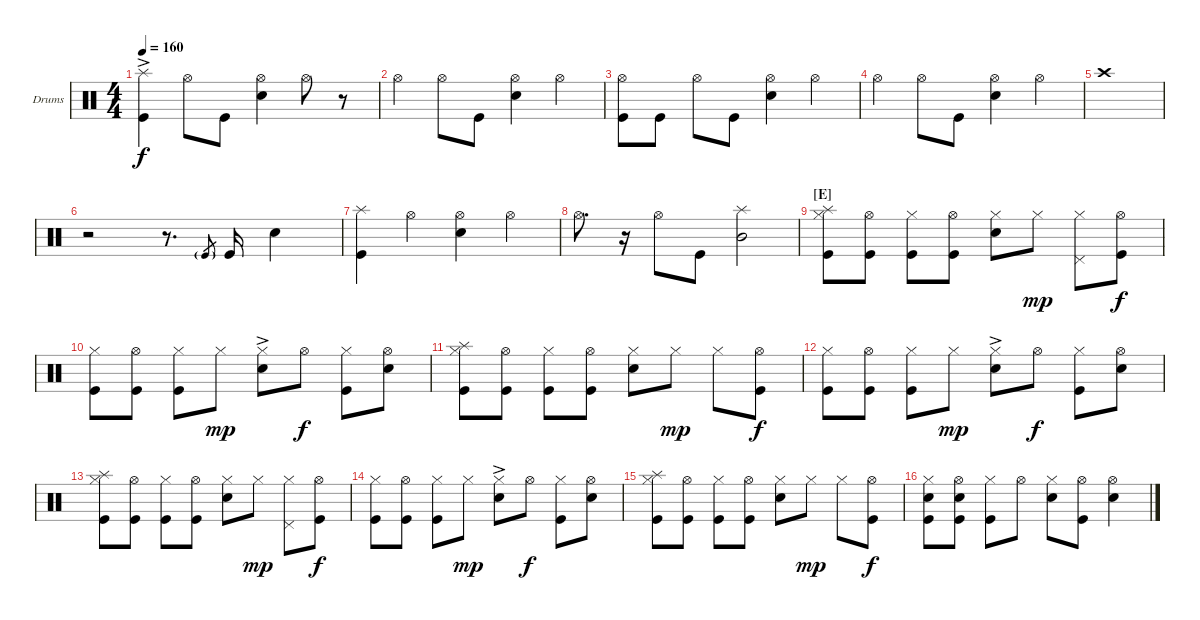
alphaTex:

\defaultSystemsLayout 4
\bracketExtendMode groupsimilarinstruments
\firstSystemTrackNameOrientation horizontal
\otherSystemsTrackNameOrientation horizontal
\track ("Drumkit" "Drums") {instrument percussion}
\staff {score}
\articulation defaults
\ts (4 4)
\tempo 160
\clef neutral
\ks c
("Splash (hit)"{ac} "Kick (hit)").4{dy f} "Hi-Hat (open)".8 "Kick (hit)".8 ("Hi-Hat (open)" "Snare (hit) 2").4 "Hi-Hat (open)".8 r.8 |
"Hi-Hat (open)".4 "Hi-Hat (open)".8 "Kick (hit)".8 ("Hi-Hat (open)" "Snare (hit) 2").4 "Hi-Hat (open)".4 |
("Kick (hit)" "Hi-Hat (open)").8 "Kick (hit)".8 "Hi-Hat (open)".8 "Kick (hit)".8 ("Hi-Hat (open)" "Snare (hit) 2").4 "Hi-Hat (open)".4 |
"Hi-Hat (open)".4 "Hi-Hat (open)".8 "Kick (hit)".8 ("Hi-Hat (open)" "Snare (hit) 2").4 "Hi-Hat (open)".4 |
"Crash high (hit)".1 |
r.2 r.8{d} "Kick (hit)"{g}.8{gr} "Kick (hit)".16 "Snare (hit) 2".4 |
("Kick (hit)" "Splash (hit)").4 "Hi-Hat (open)".4 ("Hi-Hat (open)" "Snare (hit) 2").4 "Hi-Hat (open)".4 |
"Hi-Hat (open)".8{d} r.16 "Hi-Hat (open)".8 "Kick (hit)".8 ("Mid Tom (hit)" "Splash (hit)").2 |
\section ("E" "")
("Splash (hit)" "Kick (hit)" "Hi-Hat (closed)").8 ("Kick (hit)" "Hi-Hat (open)").8 ("Kick (hit)" "Hi-Hat (closed)").8 ("Kick (hit)" "Hi-Hat (open)").8 ("Snare (hit) 2" "Hi-Hat (closed)").8 "Hi-Hat (closed)".8{dy mp} ("Pedal Hi-Hat (hit)" "Hi-Hat (closed)").8 ("Kick (hit)" "Hi-Hat (open)").8{dy f} |
("Kick (hit)" "Hi-Hat (closed)").8 ("Kick (hit)" "Hi-Hat (open)").8 ("Kick (hit)" "Hi-Hat (closed)").8 "Hi-Hat (closed)".8{dy mp} ("Snare (hit) 2"{ac} "Hi-Hat (closed)").8 "Hi-Hat (open)".8{dy f} ("Hi-Hat (closed)" "Kick (hit)").8 ("Snare (hit) 2" "Hi-Hat (open)").8 |
("Splash (hit)" "Kick (hit)" "Hi-Hat (closed)").8 ("Kick (hit)" "Hi-Hat (open)").8 ("Hi-Hat (closed)" "Kick (hit)").8 ("Kick (hit)" "Hi-Hat (open)").8 ("Hi-Hat (closed)" "Snare (hit) 2").8 "Hi-Hat (closed)".8{dy mp} "Hi-Hat (closed)".8 ("Kick (hit)" "Hi-Hat (open)").8{dy f} |
("Hi-Hat (closed)" "Kick (hit)").8 ("Kick (hit)" "Hi-Hat (open)").8 ("Hi-Hat (closed)" "Kick (hit)").8 "Hi-Hat (closed)".8{dy mp} ("Snare (hit) 2"{ac} "Hi-Hat (closed)").8 "Hi-Hat (open)".8{dy f} ("Hi-Hat (closed)" "Kick (hit)").8 ("Snare (hit) 2" "Hi-Hat (open)").8 |
("Splash (hit)" "Kick (hit)" "Hi-Hat (closed)").8 ("Kick (hit)" "Hi-Hat (open)").8 ("Kick (hit)" "Hi-Hat (closed)").8 ("Kick (hit)" "Hi-Hat (open)").8 ("Snare (hit) 2" "Hi-Hat (closed)").8 "Hi-Hat (closed)".8{dy mp} ("Pedal Hi-Hat (hit)" "Hi-Hat (closed)").8 ("Kick (hit)" "Hi-Hat (open)").8{dy f} |
("Kick (hit)" "Hi-Hat (closed)").8 ("Kick (hit)" "Hi-Hat (open)").8 ("Kick (hit)" "Hi-Hat (closed)").8 "Hi-Hat (closed)".8{dy mp} ("Snare (hit) 2"{ac} "Hi-Hat (closed)").8 "Hi-Hat (open)".8{dy f} ("Hi-Hat (closed)" "Kick (hit)").8 ("Snare (hit) 2" "Hi-Hat (open)").8 |
("Splash (hit)" "Kick (hit)" "Hi-Hat (closed)").8 ("Kick (hit)" "Hi-Hat (open)").8 ("Hi-Hat (closed)" "Kick (hit)").8 ("Kick (hit)" "Hi-Hat (open)").8 ("Hi-Hat (closed)" "Snare (hit) 2").8 "Hi-Hat (closed)".8{dy mp} "Hi-Hat (closed)".8 ("Kick (hit)" "Hi-Hat (open)").8{dy f} |
("Hi-Hat (closed)" "Kick (hit)" "Snare (hit) 2").8 ("Kick (hit)" "Hi-Hat (open)" "Snare (hit) 2").8 ("Hi-Hat (closed)" "Kick (hit)").8 "Hi-Hat (open)".8 ("Snare (hit) 2" "Hi-Hat (closed)").8 ("Kick (hit)" "Hi-Hat (open)").8 ("Snare (hit) 2" "Hi-Hat (open)").4
